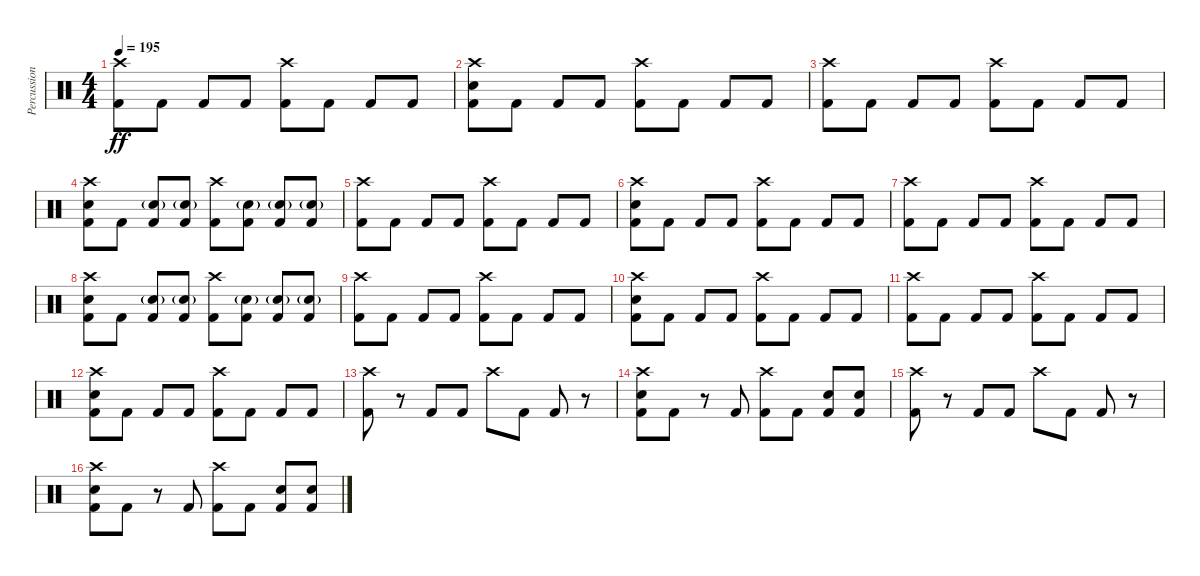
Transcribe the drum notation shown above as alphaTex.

\track ("Percussion" "Percussion") {instrument percussion}
\staff {score}
\articulation defaults
\ts (4 4)
\tempo 195
\clef neutral
\ks c
("Crash high (hit)" "Kick (hit) 2").8{dy ff} "Kick (hit) 2".8 "Kick (hit) 2".8 "Kick (hit) 2".8 ("Crash high (hit)" "Kick (hit) 2").8 "Kick (hit) 2".8 "Kick (hit) 2".8 "Kick (hit) 2".8 |
("Crash high (hit)" "Electric Snare (hit)" "Kick (hit) 2").8 "Kick (hit) 2".8 "Kick (hit) 2".8 "Kick (hit) 2".8 ("Crash high (hit)" "Kick (hit) 2").8 "Kick (hit) 2".8 "Kick (hit) 2".8 "Kick (hit) 2".8 |
("Crash high (hit)" "Kick (hit) 2").8 "Kick (hit) 2".8 "Kick (hit) 2".8 "Kick (hit) 2".8 ("Crash high (hit)" "Kick (hit) 2").8 "Kick (hit) 2".8 "Kick (hit) 2".8 "Kick (hit) 2".8 |
("Crash high (hit)" "Electric Snare (hit)" "Kick (hit) 2").8 "Kick (hit) 2".8 ("Electric Snare (hit)"{g} "Kick (hit) 2").8 ("Electric Snare (hit)"{g} "Kick (hit) 2").8 ("Crash high (hit)" "Kick (hit) 2").8 ("Electric Snare (hit)"{g} "Kick (hit) 2").8 ("Electric Snare (hit)"{g} "Kick (hit) 2").8 ("Electric Snare (hit)"{g} "Kick (hit) 2").8 |
("Crash high (hit)" "Kick (hit) 2").8 "Kick (hit) 2".8 "Kick (hit) 2".8 "Kick (hit) 2".8 ("Crash high (hit)" "Kick (hit) 2").8 "Kick (hit) 2".8 "Kick (hit) 2".8 "Kick (hit) 2".8 |
("Crash high (hit)" "Electric Snare (hit)" "Kick (hit) 2").8 "Kick (hit) 2".8 "Kick (hit) 2".8 "Kick (hit) 2".8 ("Crash high (hit)" "Kick (hit) 2").8 "Kick (hit) 2".8 "Kick (hit) 2".8 "Kick (hit) 2".8 |
("Crash high (hit)" "Kick (hit) 2").8 "Kick (hit) 2".8 "Kick (hit) 2".8 "Kick (hit) 2".8 ("Crash high (hit)" "Kick (hit) 2").8 "Kick (hit) 2".8 "Kick (hit) 2".8 "Kick (hit) 2".8 |
("Crash high (hit)" "Electric Snare (hit)" "Kick (hit) 2").8 "Kick (hit) 2".8 ("Electric Snare (hit)"{g} "Kick (hit) 2").8 ("Electric Snare (hit)"{g} "Kick (hit) 2").8 ("Crash high (hit)" "Kick (hit) 2").8 ("Electric Snare (hit)"{g} "Kick (hit) 2").8 ("Electric Snare (hit)"{g} "Kick (hit) 2").8 ("Electric Snare (hit)"{g} "Kick (hit) 2").8 |
("Crash high (hit)" "Kick (hit) 2").8 "Kick (hit) 2".8 "Kick (hit) 2".8 "Kick (hit) 2".8 ("Crash high (hit)" "Kick (hit) 2").8 "Kick (hit) 2".8 "Kick (hit) 2".8 "Kick (hit) 2".8 |
("Crash high (hit)" "Electric Snare (hit)" "Kick (hit) 2").8 "Kick (hit) 2".8 "Kick (hit) 2".8 "Kick (hit) 2".8 ("Crash high (hit)" "Kick (hit) 2").8 "Kick (hit) 2".8 "Kick (hit) 2".8 "Kick (hit) 2".8 |
("Crash high (hit)" "Kick (hit) 2").8 "Kick (hit) 2".8 "Kick (hit) 2".8 "Kick (hit) 2".8 ("Crash high (hit)" "Kick (hit) 2").8 "Kick (hit) 2".8 "Kick (hit) 2".8 "Kick (hit) 2".8 |
("Crash high (hit)" "Electric Snare (hit)" "Kick (hit) 2").8 "Kick (hit) 2".8 "Kick (hit) 2".8 "Kick (hit) 2".8 ("Crash high (hit)" "Kick (hit) 2").8 "Kick (hit) 2".8 "Kick (hit) 2".8 "Kick (hit) 2".8 |
("Crash high (hit)" "Kick (hit) 2").8 r.8 "Kick (hit) 2".8 "Kick (hit) 2".8 "Crash high (hit)".8 "Kick (hit) 2".8 "Kick (hit) 2".8 r.8 |
("Crash high (hit)" "Electric Snare (hit)" "Kick (hit) 2").8 "Kick (hit) 2".8 r.8 "Kick (hit) 2".8 ("Crash high (hit)" "Kick (hit) 2").8 "Kick (hit) 2".8 ("Electric Snare (hit)" "Kick (hit) 2").8 ("Electric Snare (hit)" "Kick (hit) 2").8 |
("Crash high (hit)" "Kick (hit) 2").8 r.8 "Kick (hit) 2".8 "Kick (hit) 2".8 "Crash high (hit)".8 "Kick (hit) 2".8 "Kick (hit) 2".8 r.8 |
("Crash high (hit)" "Electric Snare (hit)" "Kick (hit) 2").8 "Kick (hit) 2".8 r.8 "Kick (hit) 2".8 ("Crash high (hit)" "Kick (hit) 2").8 "Kick (hit) 2".8 ("Electric Snare (hit)" "Kick (hit) 2").8 ("Electric Snare (hit)" "Kick (hit) 2").8
